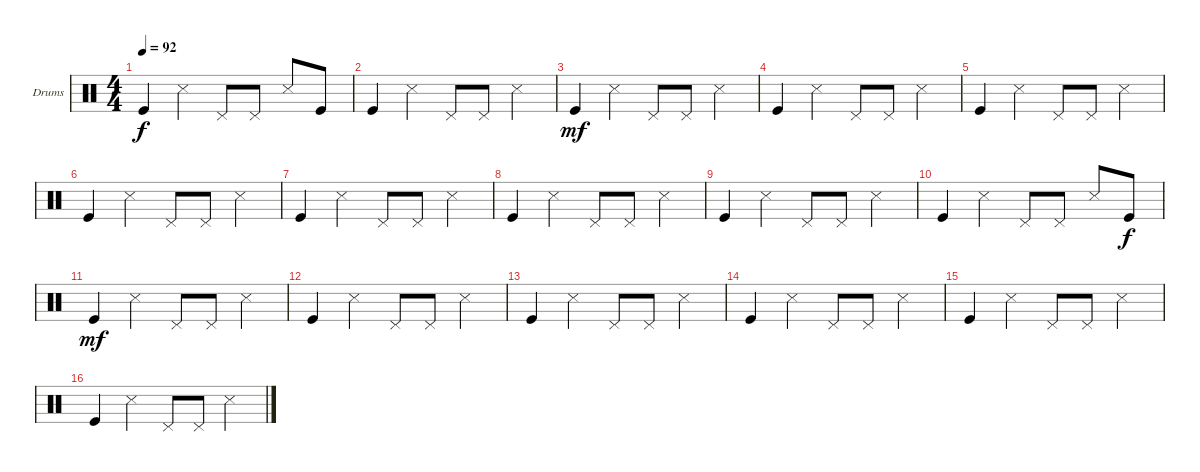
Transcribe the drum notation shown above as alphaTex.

\defaultSystemsLayout 4
\bracketExtendMode groupsimilarinstruments
\firstSystemTrackNameOrientation horizontal
\otherSystemsTrackNameOrientation horizontal
\track ("Е. Кулаков" "Drums") {instrument percussion}
\staff {score}
\articulation defaults
\ts (4 4)
\tempo 92
\clef neutral
\ks c "Kick (hit)".4{dy f} "Snare (side stick) 3".4 "Pedal Hi-Hat (hit)".8 "Pedal Hi-Hat (hit)".8 "Snare (side stick) 3".8 "Kick (hit)".8
|
"Kick (hit)".4 "Snare (side stick) 3".4 "Pedal Hi-Hat (hit)".8 "Pedal Hi-Hat (hit)".8 "Snare (side stick) 3".4 |
"Kick (hit)".4{dy mf} "Snare (side stick) 3".4 "Pedal Hi-Hat (hit)".8 "Pedal Hi-Hat (hit)".8 "Snare (side stick) 3".4 |
"Kick (hit)".4 "Snare (side stick) 3".4 "Pedal Hi-Hat (hit)".8 "Pedal Hi-Hat (hit)".8 "Snare (side stick) 3".4 |
"Kick (hit)".4 "Snare (side stick) 3".4 "Pedal Hi-Hat (hit)".8 "Pedal Hi-Hat (hit)".8 "Snare (side stick) 3".4 |
"Kick (hit)".4 "Snare (side stick) 3".4 "Pedal Hi-Hat (hit)".8 "Pedal Hi-Hat (hit)".8 "Snare (side stick) 3".4 |
"Kick (hit)".4 "Snare (side stick) 3".4 "Pedal Hi-Hat (hit)".8 "Pedal Hi-Hat (hit)".8 "Snare (side stick) 3".4 |
"Kick (hit)".4 "Snare (side stick) 3".4 "Pedal Hi-Hat (hit)".8 "Pedal Hi-Hat (hit)".8 "Snare (side stick) 3".4 |
"Kick (hit)".4 "Snare (side stick) 3".4 "Pedal Hi-Hat (hit)".8 "Pedal Hi-Hat (hit)".8 "Snare (side stick) 3".4 |
"Kick (hit)".4 "Snare (side stick) 3".4 "Pedal Hi-Hat (hit)".8 "Pedal Hi-Hat (hit)".8 "Snare (side stick) 3".8 "Kick (hit)".8{dy f} |
"Kick (hit)".4{dy mf} "Snare (side stick) 3".4 "Pedal Hi-Hat (hit)".8 "Pedal Hi-Hat (hit)".8 "Snare (side stick) 3".4 |
"Kick (hit)".4 "Snare (side stick) 3".4 "Pedal Hi-Hat (hit)".8 "Pedal Hi-Hat (hit)".8 "Snare (side stick) 3".4 |
"Kick (hit)".4 "Snare (side stick) 3".4 "Pedal Hi-Hat (hit)".8 "Pedal Hi-Hat (hit)".8 "Snare (side stick) 3".4 |
"Kick (hit)".4 "Snare (side stick) 3".4 "Pedal Hi-Hat (hit)".8 "Pedal Hi-Hat (hit)".8 "Snare (side stick) 3".4 |
"Kick (hit)".4 "Snare (side stick) 3".4 "Pedal Hi-Hat (hit)".8 "Pedal Hi-Hat (hit)".8 "Snare (side stick) 3".4 |
"Kick (hit)".4 "Snare (side stick) 3".4 "Pedal Hi-Hat (hit)".8 "Pedal Hi-Hat (hit)".8 "Snare (side stick) 3".4
